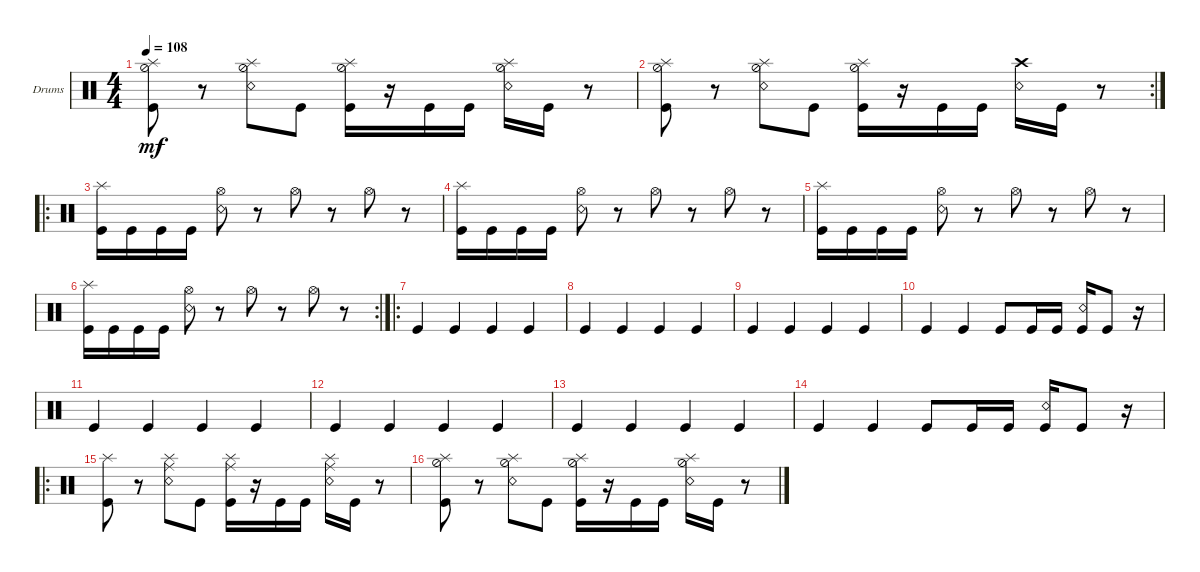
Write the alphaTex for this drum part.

\bracketExtendMode groupsimilarinstruments
\firstSystemTrackNameOrientation horizontal
\otherSystemsTrackNameOrientation horizontal
\track ("Drumkit" "Drums") {instrument percussion}
\staff {score}
\articulation defaults
\ts (4 4)
\tempo 108
\clef neutral
\scale
0.301075
\ks c
("Kick (hit)" "Hi-Hat (half)" "Splash (hit)").8{dy mf} r.8 ("Snare (rim shot)" "Hi-Hat (half)" "Splash (hit)").8 "Kick (hit)".8 ("Kick (hit)" "Hi-Hat (half)" "Splash (hit)").16 r.16 "Kick (hit)".16 "Kick (hit)".16 ("Snare (rim shot)" "Hi-Hat (half)" "Splash (hit)").16 "Kick (hit)".16 r.8 |
\rc 2
\scale
0.333333 ("Kick (hit)" "Hi-Hat (half)" "Splash (hit)").8 r.8 ("Snare (rim shot)" "Hi-Hat (half)" "Splash (hit)").8 "Kick (hit)".8 ("Kick (hit)" "Hi-Hat (half)" "Splash (hit)").16 r.16 "Kick (hit)".16 "Kick (hit)".16 ("Snare (rim shot)" "Crash high (hit)").16 "Kick (hit)".16 r.8 |
\ro
\scale
0.365591 ("Kick (hit)" "Splash (hit)").16 "Kick (hit)".16 "Kick (hit)".16 "Kick (hit)".16 ("Snare (rim shot)" "Hi-Hat (open)").8 r.8 "Hi-Hat (open)".8 r.8 "Hi-Hat (open)".8 r.8 |
\scale
0.321839 ("Kick (hit)" "Splash (hit)").16 "Kick (hit)".16 "Kick (hit)".16 "Kick (hit)".16 ("Snare (rim shot)" "Hi-Hat (open)").8 r.8 "Hi-Hat (open)".8 r.8 "Hi-Hat (open)".8 r.8 |
\scale
0.321839 ("Kick (hit)" "Splash (hit)").16 "Kick (hit)".16 "Kick (hit)".16 "Kick (hit)".16 ("Snare (rim shot)" "Hi-Hat (open)").8 r.8 "Hi-Hat (open)".8 r.8 "Hi-Hat (open)".8 r.8 |
\rc 2
\scale
0.356322 ("Kick (hit)" "Splash (hit)").16 "Kick (hit)".16 "Kick (hit)".16 "Kick (hit)".16 ("Snare (rim shot)" "Hi-Hat (open)").8 r.8 "Hi-Hat (open)".8 r.8 "Hi-Hat (open)".8 r.8 |
\ro
\scale
0.377778 "Kick (hit)".4 "Kick (hit)".4 "Kick (hit)".4 "Kick (hit)".4 |
\scale
0.311111 "Kick (hit)".4 "Kick (hit)".4 "Kick (hit)".4 "Kick (hit)".4 |
\scale
0.311111 "Kick (hit)".4 "Kick (hit)".4 "Kick (hit)".4 "Kick (hit)".4 |
\scale
0.333333 "Kick (hit)".4 "Kick (hit)".4 "Kick (hit)".8 "Kick (hit)".16 "Kick (hit)".16 ("Kick (hit)" "Snare (rim shot)").16 "Kick (hit)".8 r.16 |
\scale
0.333333 "Kick (hit)".4 "Kick (hit)".4 "Kick (hit)".4 "Kick (hit)".4 |
\scale
0.333333 "Kick (hit)".4 "Kick (hit)".4 "Kick (hit)".4 "Kick (hit)".4 |
\scale
0.311111 "Kick (hit)".4 "Kick (hit)".4 "Kick (hit)".4 "Kick (hit)".4 |
\scale
0.311111 "Kick (hit)".4 "Kick (hit)".4 "Kick (hit)".8 "Kick (hit)".16 "Kick (hit)".16 ("Kick (hit)" "Snare (rim shot)").16 "Kick (hit)".8 r.16 |
\ro
\scale
0.377778 ("Kick (hit)" "Splash (hit)").8 r.8 ("Snare (rim shot)" "Ride (middle)" "Splash (hit)").8 "Kick (hit)".8 ("Kick (hit)" "Ride (middle)" "Splash (hit)").16 r.16 "Kick (hit)".16 "Kick (hit)".16 ("Snare (rim shot)" "Ride (middle)" "Splash (hit)").16 "Kick (hit)".16 r.8 |
\scale
0.333333 ("Kick (hit)" "Hi-Hat (half)" "Splash (hit)").8 r.8 ("Snare (rim shot)" "Hi-Hat (half)" "Splash (hit)").8 "Kick (hit)".8 ("Kick (hit)" "Hi-Hat (half)" "Splash (hit)").16 r.16 "Kick (hit)".16 "Kick (hit)".16 ("Snare (rim shot)" "Hi-Hat (half)" "Splash (hit)").16 "Kick (hit)".16 r.8
